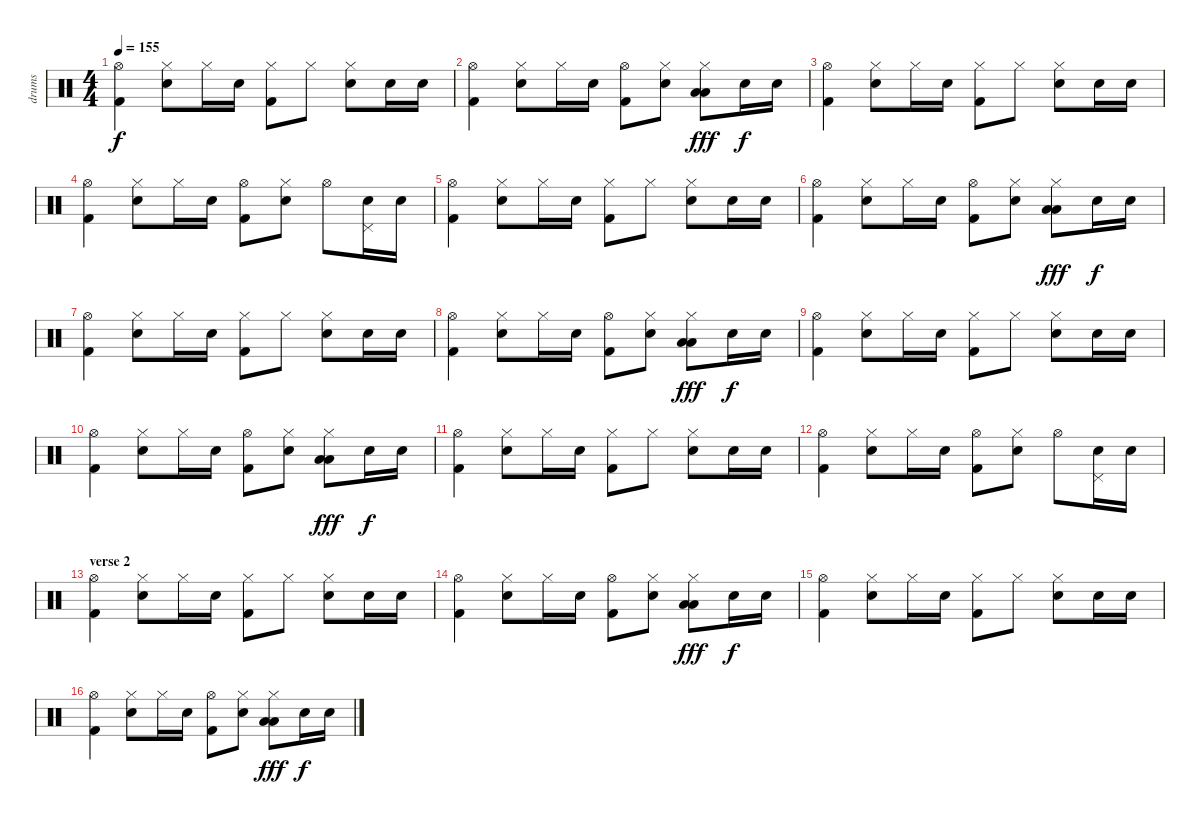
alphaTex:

\track ("drums" "drums") {instrument percussion}
\staff {score}
\articulation defaults
\ts (4 4)
\tempo 155
\clef neutral
\ks c
("Kick (hit) 2" "Hi-Hat (open)").4{dy f} ("Electric Snare (hit)" "Hi-Hat (closed)").8 "Hi-Hat (closed)".16 "Electric Snare (hit)".16 ("Kick (hit) 2" "Hi-Hat (closed)").8 "Hi-Hat (closed)".8 ("Electric Snare (hit)" "Hi-Hat (closed)").8 "Electric Snare (hit)".16 "Electric Snare (hit)".16 |
("Hi-Hat (open)" "Kick (hit) 2").4 ("Electric Snare (hit)" "Hi-Hat (closed)").8 "Hi-Hat (closed)".16 "Electric Snare (hit)".16 ("Kick (hit) 2" "Hi-Hat (open)").8 ("Electric Snare (hit)" "Hi-Hat (closed)").8 ("Low Floor Tom (hit)" "Low Tom (hit)" "Hi-Hat (closed)").8{dy fff} "Electric Snare (hit)".16{dy f} "Electric Snare (hit)".16 |
("Kick (hit) 2" "Hi-Hat (open)").4 ("Electric Snare (hit)" "Hi-Hat (closed)").8 "Hi-Hat (closed)".16 "Electric Snare (hit)".16 ("Kick (hit) 2" "Hi-Hat (closed)").8 "Hi-Hat (closed)".8 ("Electric Snare (hit)" "Hi-Hat (closed)").8 "Electric Snare (hit)".16 "Electric Snare (hit)".16 |
("Hi-Hat (open)" "Kick (hit) 2").4 ("Electric Snare (hit)" "Hi-Hat (closed)").8 "Hi-Hat (closed)".16 "Electric Snare (hit)".16 ("Kick (hit) 2" "Hi-Hat (open)").8 ("Electric Snare (hit)" "Hi-Hat (closed)").8 "Hi-Hat (open)".8 ("Electric Snare (hit)" "Pedal Hi-Hat (hit)").16 "Electric Snare (hit)".16 |
("Kick (hit) 2" "Hi-Hat (open)").4 ("Electric Snare (hit)" "Hi-Hat (closed)").8 "Hi-Hat (closed)".16 "Electric Snare (hit)".16 ("Kick (hit) 2" "Hi-Hat (closed)").8 "Hi-Hat (closed)".8 ("Electric Snare (hit)" "Hi-Hat (closed)").8 "Electric Snare (hit)".16 "Electric Snare (hit)".16 |
("Hi-Hat (open)" "Kick (hit) 2").4 ("Electric Snare (hit)" "Hi-Hat (closed)").8 "Hi-Hat (closed)".16 "Electric Snare (hit)".16 ("Kick (hit) 2" "Hi-Hat (open)").8 ("Electric Snare (hit)" "Hi-Hat (closed)").8 ("Low Floor Tom (hit)" "Low Tom (hit)" "Hi-Hat (closed)").8{dy fff} "Electric Snare (hit)".16{dy f} "Electric Snare (hit)".16 |
("Kick (hit) 2" "Hi-Hat (open)").4 ("Electric Snare (hit)" "Hi-Hat (closed)").8 "Hi-Hat (closed)".16 "Electric Snare (hit)".16 ("Kick (hit) 2" "Hi-Hat (closed)").8 "Hi-Hat (closed)".8 ("Electric Snare (hit)" "Hi-Hat (closed)").8 "Electric Snare (hit)".16 "Electric Snare (hit)".16 |
("Hi-Hat (open)" "Kick (hit) 2").4 ("Electric Snare (hit)" "Hi-Hat (closed)").8 "Hi-Hat (closed)".16 "Electric Snare (hit)".16 ("Kick (hit) 2" "Hi-Hat (open)").8 ("Electric Snare (hit)" "Hi-Hat (closed)").8 ("Low Floor Tom (hit)" "Low Tom (hit)" "Hi-Hat (closed)").8{dy fff} "Electric Snare (hit)".16{dy f} "Electric Snare (hit)".16 |
("Kick (hit) 2" "Hi-Hat (open)").4 ("Electric Snare (hit)" "Hi-Hat (closed)").8 "Hi-Hat (closed)".16 "Electric Snare (hit)".16 ("Kick (hit) 2" "Hi-Hat (closed)").8 "Hi-Hat (closed)".8 ("Electric Snare (hit)" "Hi-Hat (closed)").8 "Electric Snare (hit)".16 "Electric Snare (hit)".16 |
("Hi-Hat (open)" "Kick (hit) 2").4 ("Electric Snare (hit)" "Hi-Hat (closed)").8 "Hi-Hat (closed)".16 "Electric Snare (hit)".16 ("Kick (hit) 2" "Hi-Hat (open)").8 ("Electric Snare (hit)" "Hi-Hat (closed)").8 ("Low Floor Tom (hit)" "Low Tom (hit)" "Hi-Hat (closed)").8{dy fff} "Electric Snare (hit)".16{dy f} "Electric Snare (hit)".16 |
("Kick (hit) 2" "Hi-Hat (open)").4 ("Electric Snare (hit)" "Hi-Hat (closed)").8 "Hi-Hat (closed)".16 "Electric Snare (hit)".16 ("Kick (hit) 2" "Hi-Hat (closed)").8 "Hi-Hat (closed)".8 ("Electric Snare (hit)" "Hi-Hat (closed)").8 "Electric Snare (hit)".16 "Electric Snare (hit)".16 |
("Hi-Hat (open)" "Kick (hit) 2").4 ("Electric Snare (hit)" "Hi-Hat (closed)").8 "Hi-Hat (closed)".16 "Electric Snare (hit)".16 ("Kick (hit) 2" "Hi-Hat (open)").8 ("Electric Snare (hit)" "Hi-Hat (closed)").8 "Hi-Hat (open)".8 ("Electric Snare (hit)" "Pedal Hi-Hat (hit)").16 "Electric Snare (hit)".16 |
\section ("" "verse 2")
("Kick (hit) 2" "Hi-Hat (open)").4 ("Electric Snare (hit)" "Hi-Hat (closed)").8 "Hi-Hat (closed)".16 "Electric Snare (hit)".16 ("Kick (hit) 2" "Hi-Hat (closed)").8 "Hi-Hat (closed)".8 ("Electric Snare (hit)" "Hi-Hat (closed)").8 "Electric Snare (hit)".16 "Electric Snare (hit)".16 |
("Hi-Hat (open)" "Kick (hit) 2").4 ("Electric Snare (hit)" "Hi-Hat (closed)").8 "Hi-Hat (closed)".16 "Electric Snare (hit)".16 ("Kick (hit) 2" "Hi-Hat (open)").8 ("Electric Snare (hit)" "Hi-Hat (closed)").8 ("Low Floor Tom (hit)" "Low Tom (hit)" "Hi-Hat (closed)").8{dy fff} "Electric Snare (hit)".16{dy f} "Electric Snare (hit)".16 |
("Kick (hit) 2" "Hi-Hat (open)").4 ("Electric Snare (hit)" "Hi-Hat (closed)").8 "Hi-Hat (closed)".16 "Electric Snare (hit)".16 ("Kick (hit) 2" "Hi-Hat (closed)").8 "Hi-Hat (closed)".8 ("Electric Snare (hit)" "Hi-Hat (closed)").8 "Electric Snare (hit)".16 "Electric Snare (hit)".16 |
("Hi-Hat (open)" "Kick (hit) 2").4 ("Electric Snare (hit)" "Hi-Hat (closed)").8 "Hi-Hat (closed)".16 "Electric Snare (hit)".16 ("Kick (hit) 2" "Hi-Hat (open)").8 ("Electric Snare (hit)" "Hi-Hat (closed)").8 ("Low Floor Tom (hit)" "Low Tom (hit)" "Hi-Hat (closed)").8{dy fff} "Electric Snare (hit)".16{dy f} "Electric Snare (hit)".16
